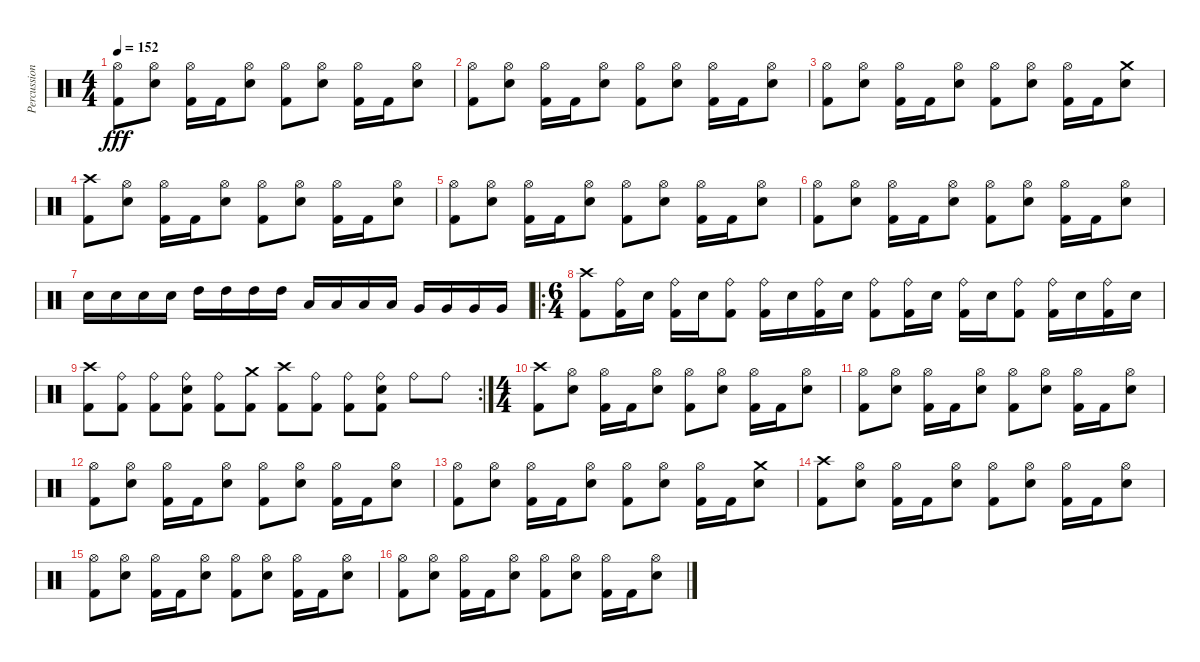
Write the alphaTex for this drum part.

\track ("Percussion" "Percussion") {instrument percussion}
\staff {score}
\articulation defaults
\ts (4 4)
\tempo 152
\clef neutral
\ks c
("Hi-Hat (open)" "Kick (hit) 2").8{dy fff} ("Hi-Hat (open)" "Snare (hit) 2").8 ("Hi-Hat (open)" "Kick (hit) 2").16 "Kick (hit) 2".16 ("Hi-Hat (open)" "Snare (hit) 2").8 ("Hi-Hat (open)" "Kick (hit) 2").8 ("Hi-Hat (open)" "Snare (hit) 2").8 ("Hi-Hat (open)" "Kick (hit) 2").16 "Kick (hit) 2".16 ("Hi-Hat (open)" "Snare (hit) 2").8 |
("Hi-Hat (open)" "Kick (hit) 2").8 ("Hi-Hat (open)" "Snare (hit) 2").8 ("Hi-Hat (open)" "Kick (hit) 2").16 "Kick (hit) 2".16 ("Hi-Hat (open)" "Snare (hit) 2").8 ("Hi-Hat (open)" "Kick (hit) 2").8 ("Hi-Hat (open)" "Snare (hit) 2").8 ("Hi-Hat (open)" "Kick (hit) 2").16 "Kick (hit) 2".16 ("Hi-Hat (open)" "Snare (hit) 2").8 |
("Hi-Hat (open)" "Kick (hit) 2").8 ("Hi-Hat (open)" "Snare (hit) 2").8 ("Hi-Hat (open)" "Kick (hit) 2").16 "Kick (hit) 2".16 ("Hi-Hat (open)" "Snare (hit) 2").8 ("Hi-Hat (open)" "Kick (hit) 2").8 ("Hi-Hat (open)" "Snare (hit) 2").8 ("Hi-Hat (open)" "Kick (hit) 2").16 "Kick (hit) 2".16 ("Crash medium (hit)" "Snare (hit) 2").8 |
("Crash high (hit)" "Kick (hit) 2").8 ("Hi-Hat (open)" "Snare (hit) 2").8 ("Hi-Hat (open)" "Kick (hit) 2").16 "Kick (hit) 2".16 ("Hi-Hat (open)" "Snare (hit) 2").8 ("Hi-Hat (open)" "Kick (hit) 2").8 ("Hi-Hat (open)" "Snare (hit) 2").8 ("Hi-Hat (open)" "Kick (hit) 2").16 "Kick (hit) 2".16 ("Hi-Hat (open)" "Snare (hit) 2").8 |
("Hi-Hat (open)" "Kick (hit) 2").8 ("Hi-Hat (open)" "Snare (hit) 2").8 ("Hi-Hat (open)" "Kick (hit) 2").16 "Kick (hit) 2".16 ("Hi-Hat (open)" "Snare (hit) 2").8 ("Hi-Hat (open)" "Kick (hit) 2").8 ("Hi-Hat (open)" "Snare (hit) 2").8 ("Hi-Hat (open)" "Kick (hit) 2").16 "Kick (hit) 2".16 ("Hi-Hat (open)" "Snare (hit) 2").8 |
("Hi-Hat (open)" "Kick (hit) 2").8 ("Hi-Hat (open)" "Snare (hit) 2").8 ("Hi-Hat (open)" "Kick (hit) 2").16 "Kick (hit) 2".16 ("Hi-Hat (open)" "Snare (hit) 2").8 ("Hi-Hat (open)" "Kick (hit) 2").8 ("Hi-Hat (open)" "Snare (hit) 2").8 ("Hi-Hat (open)" "Kick (hit) 2").16 "Kick (hit) 2".16 ("Hi-Hat (open)" "Snare (hit) 2").8 |
"Snare (hit) 2".16 "Snare (hit) 2".16 "Snare (hit) 2".16 "Snare (hit) 2".16 "High Tom (hit)".16 "High Tom (hit)".16 "High Tom (hit)".16 "High Tom (hit)".16 "Low Tom (hit)".16 "Low Tom (hit)".16 "Low Tom (hit)".16 "Low Tom (hit)".16 "Very Low Tom (hit)".16 "Very Low Tom (hit)".16 "Very Low Tom (hit)".16 "Very Low Tom (hit)".16 |
\ro
\ts (6 4)
("Crash high (hit)" "Kick (hit) 2").8 ("Ride (bell)" "Kick (hit) 2").16 "Snare (hit) 2".16 ("Ride (bell)" "Kick (hit) 2").16 "Snare (hit) 2".16 ("Ride (bell)" "Kick (hit) 2").8 ("Ride (bell)" "Kick (hit) 2").16 "Snare (hit) 2".16 ("Ride (bell)" "Kick (hit) 2").16 "Snare (hit) 2".16 ("Ride (bell)" "Kick (hit) 2").8 ("Ride (bell)" "Kick (hit) 2").16 "Snare (hit) 2".16 ("Ride (bell)" "Kick (hit) 2").16 "Snare (hit) 2".16 ("Ride (bell)" "Kick (hit) 2").8 ("Ride (bell)" "Kick (hit) 2").16 "Snare (hit) 2".16 ("Ride (bell)" "Kick (hit) 2").16 "Snare (hit) 2".16 |
\rc 2
("Crash high (hit)" "Kick (hit) 2").8 ("Ride (bell)" "Kick (hit) 2").8 ("Ride (bell)" "Kick (hit) 2").8 ("Ride (bell)" "Kick (hit) 2" "Snare (hit) 2").8 ("Ride (bell)" "Kick (hit) 2").8 ("Crash medium (hit)" "Kick (hit) 2").8 ("Crash high (hit)" "Kick (hit) 2").8 ("Ride (bell)" "Kick (hit) 2").8 ("Ride (bell)" "Kick (hit) 2").8 ("Ride (bell)" "Kick (hit) 2" "Snare (hit) 2").8 "Ride (bell)".8 "Ride (bell)".8 |
\ts (4 4)
("Crash high (hit)" "Kick (hit) 2").8 ("Hi-Hat (open)" "Snare (hit) 2").8 ("Hi-Hat (open)" "Kick (hit) 2").16 "Kick (hit) 2".16 ("Hi-Hat (open)" "Snare (hit) 2").8 ("Hi-Hat (open)" "Kick (hit) 2").8 ("Hi-Hat (open)" "Snare (hit) 2").8 ("Hi-Hat (open)" "Kick (hit) 2").16 "Kick (hit) 2".16 ("Hi-Hat (open)" "Snare (hit) 2").8 |
("Hi-Hat (open)" "Kick (hit) 2").8 ("Hi-Hat (open)" "Snare (hit) 2").8 ("Hi-Hat (open)" "Kick (hit) 2").16 "Kick (hit) 2".16 ("Hi-Hat (open)" "Snare (hit) 2").8 ("Hi-Hat (open)" "Kick (hit) 2").8 ("Hi-Hat (open)" "Snare (hit) 2").8 ("Hi-Hat (open)" "Kick (hit) 2").16 "Kick (hit) 2".16 ("Hi-Hat (open)" "Snare (hit) 2").8 |
("Hi-Hat (open)" "Kick (hit) 2").8 ("Hi-Hat (open)" "Snare (hit) 2").8 ("Hi-Hat (open)" "Kick (hit) 2").16 "Kick (hit) 2".16 ("Hi-Hat (open)" "Snare (hit) 2").8 ("Hi-Hat (open)" "Kick (hit) 2").8 ("Hi-Hat (open)" "Snare (hit) 2").8 ("Hi-Hat (open)" "Kick (hit) 2").16 "Kick (hit) 2".16 ("Hi-Hat (open)" "Snare (hit) 2").8 |
("Hi-Hat (open)" "Kick (hit) 2").8 ("Hi-Hat (open)" "Snare (hit) 2").8 ("Hi-Hat (open)" "Kick (hit) 2").16 "Kick (hit) 2".16 ("Hi-Hat (open)" "Snare (hit) 2").8 ("Hi-Hat (open)" "Kick (hit) 2").8 ("Hi-Hat (open)" "Snare (hit) 2").8 ("Hi-Hat (open)" "Kick (hit) 2").16 "Kick (hit) 2".16 ("Crash medium (hit)" "Snare (hit) 2").8 |
("Crash high (hit)" "Kick (hit) 2").8 ("Hi-Hat (open)" "Snare (hit) 2").8 ("Hi-Hat (open)" "Kick (hit) 2").16 "Kick (hit) 2".16 ("Hi-Hat (open)" "Snare (hit) 2").8 ("Hi-Hat (open)" "Kick (hit) 2").8 ("Hi-Hat (open)" "Snare (hit) 2").8 ("Hi-Hat (open)" "Kick (hit) 2").16 "Kick (hit) 2".16 ("Hi-Hat (open)" "Snare (hit) 2").8 |
("Hi-Hat (open)" "Kick (hit) 2").8 ("Hi-Hat (open)" "Snare (hit) 2").8 ("Hi-Hat (open)" "Kick (hit) 2").16 "Kick (hit) 2".16 ("Hi-Hat (open)" "Snare (hit) 2").8 ("Hi-Hat (open)" "Kick (hit) 2").8 ("Hi-Hat (open)" "Snare (hit) 2").8 ("Hi-Hat (open)" "Kick (hit) 2").16 "Kick (hit) 2".16 ("Hi-Hat (open)" "Snare (hit) 2").8 |
("Hi-Hat (open)" "Kick (hit) 2").8 ("Hi-Hat (open)" "Snare (hit) 2").8 ("Hi-Hat (open)" "Kick (hit) 2").16 "Kick (hit) 2".16 ("Hi-Hat (open)" "Snare (hit) 2").8 ("Hi-Hat (open)" "Kick (hit) 2").8 ("Hi-Hat (open)" "Snare (hit) 2").8 ("Hi-Hat (open)" "Kick (hit) 2").16 "Kick (hit) 2".16 ("Hi-Hat (open)" "Snare (hit) 2").8
